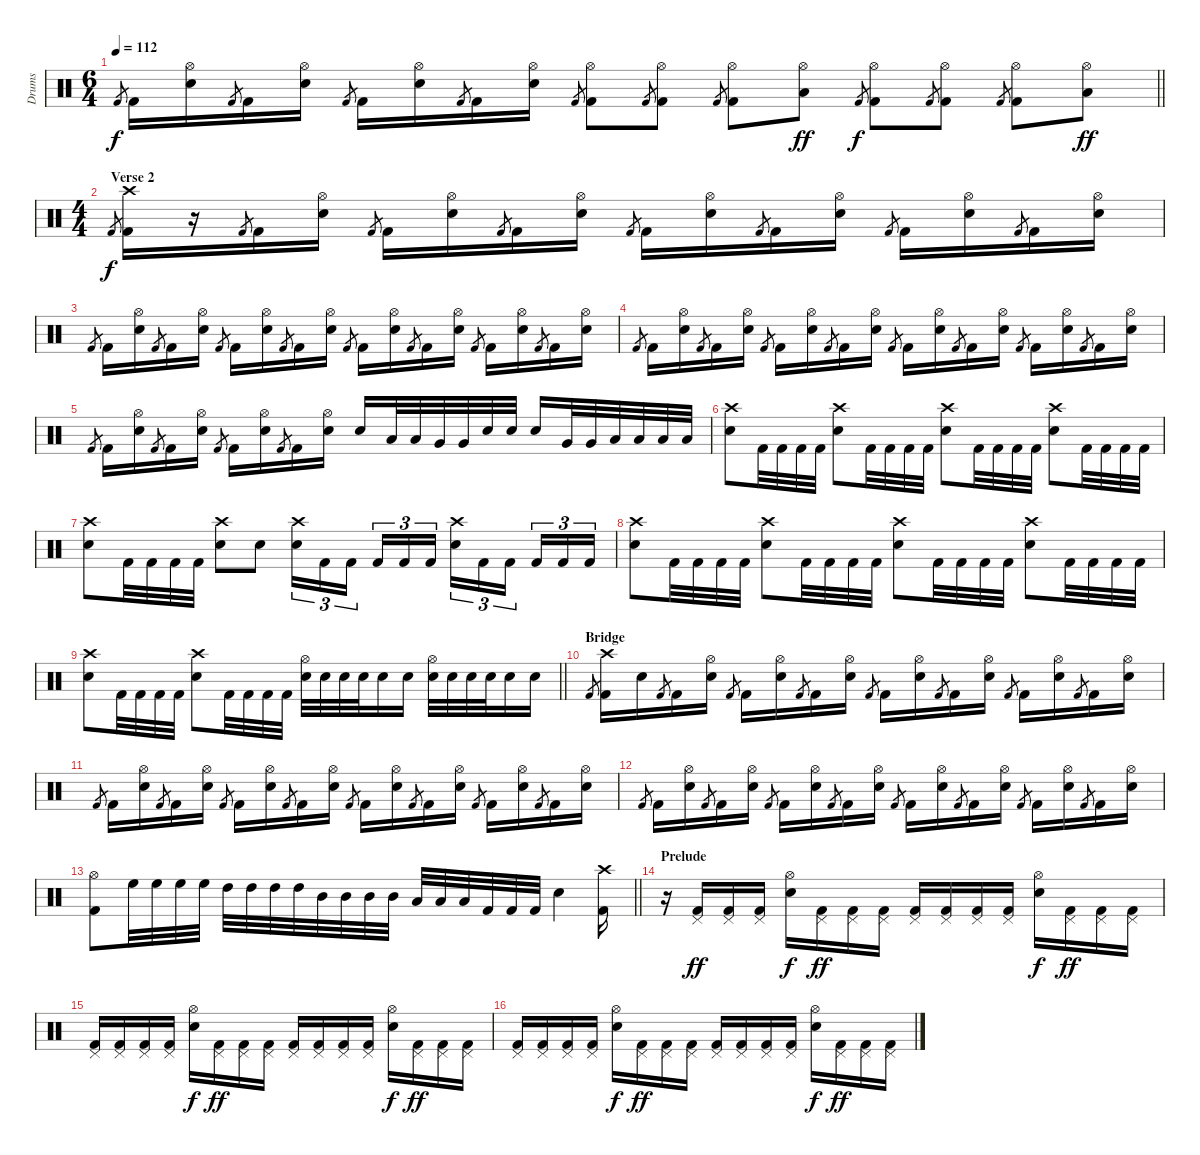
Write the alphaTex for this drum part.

\track ("Drums" "Drums") {instrument percussion}
\staff {score}
\articulation defaults
\ts (6 4)
\tempo 112
\clef neutral
\barLineRight lightlight
\ks c "Kick (hit) 2".8{gr dy f} "Kick (hit) 2".16
("Hi-Hat (open)" "Snare (hit) 2").16 "Kick (hit) 2".8{gr} "Kick (hit) 2".16 ("Hi-Hat (open)" "Snare (hit) 2").16 "Kick (hit) 2".8{gr} "Kick (hit) 2".16 ("Hi-Hat (open)" "Snare (hit) 2").16 "Kick (hit) 2".8{gr} "Kick (hit) 2".16 ("Hi-Hat (open)" "Snare (hit) 2").16 "Kick (hit) 2".8{gr} ("Hi-Hat (open)" "Kick (hit) 2").8 "Kick (hit) 2".8{gr} ("Hi-Hat (open)" "Kick (hit) 2").8 "Kick (hit) 2".8{gr} ("Hi-Hat (open)" "Kick (hit) 2").8 ("Hi-Hat (open)" "Low Tom (hit)").8{dy ff} "Kick (hit) 2".8{gr dy f} ("Hi-Hat (open)" "Kick (hit) 2").8 "Kick (hit) 2".8{gr} ("Hi-Hat (open)" "Kick (hit) 2").8 "Kick (hit) 2".8{gr} ("Hi-Hat (open)" "Kick (hit) 2").8 ("Hi-Hat (open)" "Low Tom (hit)").8{dy ff} |
\ts (4 4)
\section ("" " Verse 2")
"Kick (hit) 2".8{gr dy f} ("Crash high (hit)" "Kick (hit) 2").16 r.16 "Kick (hit) 2".8{gr} "Kick (hit) 2".16 ("Hi-Hat (open)" "Snare (hit) 2").16 "Kick (hit) 2".8{gr} "Kick (hit) 2".16 ("Hi-Hat (open)" "Snare (hit) 2").16 "Kick (hit) 2".8{gr} "Kick (hit) 2".16 ("Hi-Hat (open)" "Snare (hit) 2").16 "Kick (hit) 2".8{gr} "Kick (hit) 2".16 ("Hi-Hat (open)" "Snare (hit) 2").16 "Kick (hit) 2".8{gr} "Kick (hit) 2".16 ("Hi-Hat (open)" "Snare (hit) 2").16 "Kick (hit) 2".8{gr} "Kick (hit) 2".16 ("Hi-Hat (open)" "Snare (hit) 2").16 "Kick (hit) 2".8{gr} "Kick (hit) 2".16 ("Hi-Hat (open)" "Snare (hit) 2").16 |
"Kick (hit) 2".8{gr} "Kick (hit) 2".16 ("Hi-Hat (open)" "Snare (hit) 2").16 "Kick (hit) 2".8{gr} "Kick (hit) 2".16 ("Hi-Hat (open)" "Snare (hit) 2").16 "Kick (hit) 2".8{gr} "Kick (hit) 2".16 ("Hi-Hat (open)" "Snare (hit) 2").16 "Kick (hit) 2".8{gr} "Kick (hit) 2".16 ("Hi-Hat (open)" "Snare (hit) 2").16 "Kick (hit) 2".8{gr} "Kick (hit) 2".16 ("Hi-Hat (open)" "Snare (hit) 2").16 "Kick (hit) 2".8{gr} "Kick (hit) 2".16 ("Hi-Hat (open)" "Snare (hit) 2").16 "Kick (hit) 2".8{gr} "Kick (hit) 2".16 ("Hi-Hat (open)" "Snare (hit) 2").16 "Kick (hit) 2".8{gr} "Kick (hit) 2".16 ("Hi-Hat (open)" "Snare (hit) 2").16 |
"Kick (hit) 2".8{gr} "Kick (hit) 2".16 ("Hi-Hat (open)" "Snare (hit) 2").16 "Kick (hit) 2".8{gr} "Kick (hit) 2".16 ("Hi-Hat (open)" "Snare (hit) 2").16 "Kick (hit) 2".8{gr} "Kick (hit) 2".16 ("Hi-Hat (open)" "Snare (hit) 2").16 "Kick (hit) 2".8{gr} "Kick (hit) 2".16 ("Hi-Hat (open)" "Snare (hit) 2").16 "Kick (hit) 2".8{gr} "Kick (hit) 2".16 ("Hi-Hat (open)" "Snare (hit) 2").16 "Kick (hit) 2".8{gr} "Kick (hit) 2".16 ("Hi-Hat (open)" "Snare (hit) 2").16 "Kick (hit) 2".8{gr} "Kick (hit) 2".16 ("Hi-Hat (open)" "Snare (hit) 2").16 "Kick (hit) 2".8{gr} "Kick (hit) 2".16 ("Hi-Hat (open)" "Snare (hit) 2").16 |
"Kick (hit) 2".8{gr} "Kick (hit) 2".16 ("Hi-Hat (open)" "Snare (hit) 2").16 "Kick (hit) 2".8{gr} "Kick (hit) 2".16 ("Hi-Hat (open)" "Snare (hit) 2").16 "Kick (hit) 2".8{gr} "Kick (hit) 2".16 ("Hi-Hat (open)" "Snare (hit) 2").16 "Kick (hit) 2".8{gr} "Kick (hit) 2".16 ("Hi-Hat (open)" "Snare (hit) 2").16 "Snare (hit) 2".16 "Low Tom (hit)".32 "Low Tom (hit)".32 "Very Low Tom (hit)".32 "Very Low Tom (hit)".32 "Snare (hit) 2".32 "Snare (hit) 2".32 "Snare (hit) 2".16 "Very Low Tom (hit)".32 "Very Low Tom (hit)".32 "Low Floor Tom (hit)".32 "Low Floor Tom (hit)".32 "Low Tom (hit)".32 "Low Tom (hit)".32 |
("Crash high (hit)" "Snare (hit) 2").8 "Kick (hit) 2".32 "Kick (hit) 2".32 "Kick (hit) 2".32 "Kick (hit) 2".32 ("Crash high (hit)" "Snare (hit) 2").8 "Kick (hit) 2".32 "Kick (hit) 2".32 "Kick (hit) 2".32 "Kick (hit) 2".32 ("Crash high (hit)" "Snare (hit) 2").8 "Kick (hit) 2".32 "Kick (hit) 2".32 "Kick (hit) 2".32 "Kick (hit) 2".32 ("Crash high (hit)" "Snare (hit) 2").8 "Kick (hit) 2".32 "Kick (hit) 2".32 "Kick (hit) 2".32 "Kick (hit) 2".32 |
("Crash high (hit)" "Snare (hit) 2").8 "Kick (hit) 2".32 "Kick (hit) 2".32 "Kick (hit) 2".32 "Kick (hit) 2".32 ("Crash high (hit)" "Snare (hit) 2").8 "Snare (hit) 2".8 ("Crash high (hit)" "Snare (hit) 2").16{tu (3 2)} "Kick (hit) 2".16{tu (3 2)} "Kick (hit) 2".16{tu (3 2) beam splitsecondary} "Kick (hit) 2".16{tu (3 2)} "Kick (hit) 2".16{tu (3 2)} "Kick (hit) 2".16{tu (3 2)} ("Crash high (hit)" "Snare (hit) 2").16{tu (3 2)} "Kick (hit) 2".16{tu (3 2)} "Kick (hit) 2".16{tu (3 2) beam splitsecondary} "Kick (hit) 2".16{tu (3 2)} "Kick (hit) 2".16{tu (3 2)} "Kick (hit) 2".16{tu (3 2)} |
("Crash high (hit)" "Snare (hit) 2").8 "Kick (hit) 2".32 "Kick (hit) 2".32 "Kick (hit) 2".32 "Kick (hit) 2".32 ("Crash high (hit)" "Snare (hit) 2").8 "Kick (hit) 2".32 "Kick (hit) 2".32 "Kick (hit) 2".32 "Kick (hit) 2".32 ("Crash high (hit)" "Snare (hit) 2").8 "Kick (hit) 2".32 "Kick (hit) 2".32 "Kick (hit) 2".32 "Kick (hit) 2".32 ("Crash high (hit)" "Snare (hit) 2").8 "Kick (hit) 2".32 "Kick (hit) 2".32 "Kick (hit) 2".32 "Kick (hit) 2".32 |
\barLineRight lightlight
("Crash high (hit)" "Snare (hit) 2").8 "Kick (hit) 2".32 "Kick (hit) 2".32 "Kick (hit) 2".32 "Kick (hit) 2".32 ("Crash high (hit)" "Snare (hit) 2").8 "Kick (hit) 2".32 "Kick (hit) 2".32 "Kick (hit) 2".32 "Kick (hit) 2".32 ("Hi-Hat (open)" "Snare (hit) 2").32 "Snare (hit) 2".32 "Snare (hit) 2".32 "Snare (hit) 2".32 "Snare (hit) 2".16 "Snare (hit) 2".16 ("Hi-Hat (open)" "Snare (hit) 2").32 "Snare (hit) 2".32 "Snare (hit) 2".32 "Snare (hit) 2".32 "Snare (hit) 2".16 "Snare (hit) 2".16 |
\section ("" "Bridge")
"Kick (hit) 2".8{gr} ("Crash high (hit)" "Kick (hit) 2").16 "Snare (hit) 2".16 "Kick (hit) 2".8{gr} "Kick (hit) 2".16 ("Hi-Hat (open)" "Snare (hit) 2").16 "Kick (hit) 2".8{gr} "Kick (hit) 2".16 ("Hi-Hat (open)" "Snare (hit) 2").16 "Kick (hit) 2".8{gr} "Kick (hit) 2".16 ("Hi-Hat (open)" "Snare (hit) 2").16 "Kick (hit) 2".8{gr} "Kick (hit) 2".16 ("Hi-Hat (open)" "Snare (hit) 2").16 "Kick (hit) 2".8{gr} "Kick (hit) 2".16 ("Hi-Hat (open)" "Snare (hit) 2").16 "Kick (hit) 2".8{gr} "Kick (hit) 2".16 ("Hi-Hat (open)" "Snare (hit) 2").16 "Kick (hit) 2".8{gr} "Kick (hit) 2".16 ("Hi-Hat (open)" "Snare (hit) 2").16 |
"Kick (hit) 2".8{gr} "Kick (hit) 2".16 ("Hi-Hat (open)" "Snare (hit) 2").16 "Kick (hit) 2".8{gr} "Kick (hit) 2".16 ("Hi-Hat (open)" "Snare (hit) 2").16 "Kick (hit) 2".8{gr} "Kick (hit) 2".16 ("Hi-Hat (open)" "Snare (hit) 2").16 "Kick (hit) 2".8{gr} "Kick (hit) 2".16 ("Hi-Hat (open)" "Snare (hit) 2").16 "Kick (hit) 2".8{gr} "Kick (hit) 2".16 ("Hi-Hat (open)" "Snare (hit) 2").16 "Kick (hit) 2".8{gr} "Kick (hit) 2".16 ("Hi-Hat (open)" "Snare (hit) 2").16 "Kick (hit) 2".8{gr} "Kick (hit) 2".16 ("Hi-Hat (open)" "Snare (hit) 2").16 "Kick (hit) 2".8{gr} "Kick (hit) 2".16 ("Hi-Hat (open)" "Snare (hit) 2").16 |
"Kick (hit) 2".8{gr} "Kick (hit) 2".16 ("Hi-Hat (open)" "Snare (hit) 2").16 "Kick (hit) 2".8{gr} "Kick (hit) 2".16 ("Hi-Hat (open)" "Snare (hit) 2").16 "Kick (hit) 2".8{gr} "Kick (hit) 2".16 ("Hi-Hat (open)" "Snare (hit) 2").16 "Kick (hit) 2".8{gr} "Kick (hit) 2".16 ("Hi-Hat (open)" "Snare (hit) 2").16 "Kick (hit) 2".8{gr} "Kick (hit) 2".16 ("Hi-Hat (open)" "Snare (hit) 2").16 "Kick (hit) 2".8{gr} "Kick (hit) 2".16 ("Hi-Hat (open)" "Snare (hit) 2").16 "Kick (hit) 2".8{gr} "Kick (hit) 2".16 ("Hi-Hat (open)" "Snare (hit) 2").16 "Kick (hit) 2".8{gr} "Kick (hit) 2".16 ("Hi-Hat (open)" "Snare (hit) 2").16 |
\barLineRight lightlight
("Hi-Hat (open)" "Kick (hit) 2").8 "High Floor Tom (hit)".32 "High Floor Tom (hit)".32 "High Floor Tom (hit)".32 "High Floor Tom (hit)".32 "High Tom (hit)".32 "High Tom (hit)".32 "High Tom (hit)".32 "High Tom (hit)".32 "Mid Tom (hit)".32 "Mid Tom (hit)".32 "Mid Tom (hit)".32 "Mid Tom (hit)".32 "Low Tom (hit)".32 "Low Tom (hit)".32 "Low Tom (hit)".32 "Kick (hit) 2".32 "Kick (hit) 2".32 "Kick (hit) 2".32 "Snare (hit) 2".4 ("Crash high (hit)" "Kick (hit) 2").16 |
\section ("" "Prelude")
r.16 ("Pedal Hi-Hat (hit)" "Kick (hit) 2").16{dy ff} ("Pedal Hi-Hat (hit)" "Kick (hit) 2").16 ("Pedal Hi-Hat (hit)" "Kick (hit) 2").16 ("Hi-Hat (open)" "Snare (hit) 2").16{dy f} ("Pedal Hi-Hat (hit)" "Kick (hit) 2").16{dy ff} ("Pedal Hi-Hat (hit)" "Kick (hit) 2").16 ("Pedal Hi-Hat (hit)" "Kick (hit) 2").16 ("Pedal Hi-Hat (hit)" "Kick (hit) 2").16 ("Pedal Hi-Hat (hit)" "Kick (hit) 2").16 ("Pedal Hi-Hat (hit)" "Kick (hit) 2").16 ("Pedal Hi-Hat (hit)" "Kick (hit) 2").16 ("Hi-Hat (open)" "Snare (hit) 2").16{dy f} ("Pedal Hi-Hat (hit)" "Kick (hit) 2").16{dy ff} ("Pedal Hi-Hat (hit)" "Kick (hit) 2").16 ("Pedal Hi-Hat (hit)" "Kick (hit) 2").16 |
("Pedal Hi-Hat (hit)" "Kick (hit) 2").16 ("Pedal Hi-Hat (hit)" "Kick (hit) 2").16 ("Pedal Hi-Hat (hit)" "Kick (hit) 2").16 ("Pedal Hi-Hat (hit)" "Kick (hit) 2").16 ("Hi-Hat (open)" "Snare (hit) 2").16{dy f} ("Pedal Hi-Hat (hit)" "Kick (hit) 2").16{dy ff} ("Pedal Hi-Hat (hit)" "Kick (hit) 2").16 ("Pedal Hi-Hat (hit)" "Kick (hit) 2").16 ("Pedal Hi-Hat (hit)" "Kick (hit) 2").16 ("Pedal Hi-Hat (hit)" "Kick (hit) 2").16 ("Pedal Hi-Hat (hit)" "Kick (hit) 2").16 ("Pedal Hi-Hat (hit)" "Kick (hit) 2").16 ("Hi-Hat (open)" "Snare (hit) 2").16{dy f} ("Pedal Hi-Hat (hit)" "Kick (hit) 2").16{dy ff} ("Pedal Hi-Hat (hit)" "Kick (hit) 2").16 ("Pedal Hi-Hat (hit)" "Kick (hit) 2").16 |
("Pedal Hi-Hat (hit)" "Kick (hit) 2").16 ("Pedal Hi-Hat (hit)" "Kick (hit) 2").16 ("Pedal Hi-Hat (hit)" "Kick (hit) 2").16 ("Pedal Hi-Hat (hit)" "Kick (hit) 2").16 ("Hi-Hat (open)" "Snare (hit) 2").16{dy f} ("Pedal Hi-Hat (hit)" "Kick (hit) 2").16{dy ff} ("Pedal Hi-Hat (hit)" "Kick (hit) 2").16 ("Pedal Hi-Hat (hit)" "Kick (hit) 2").16 ("Pedal Hi-Hat (hit)" "Kick (hit) 2").16 ("Pedal Hi-Hat (hit)" "Kick (hit) 2").16 ("Pedal Hi-Hat (hit)" "Kick (hit) 2").16 ("Pedal Hi-Hat (hit)" "Kick (hit) 2").16 ("Hi-Hat (open)" "Snare (hit) 2").16{dy f} ("Pedal Hi-Hat (hit)" "Kick (hit) 2").16{dy ff} ("Pedal Hi-Hat (hit)" "Kick (hit) 2").16 ("Pedal Hi-Hat (hit)" "Kick (hit) 2").16
